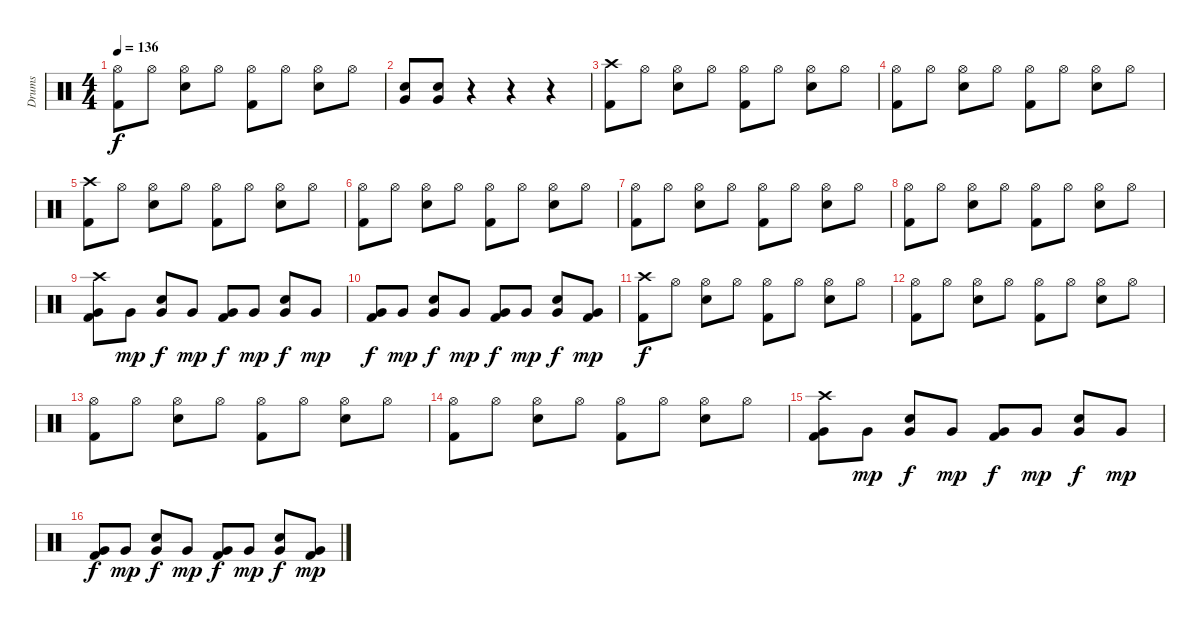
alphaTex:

\track ("Drums" "Drums") {instrument percussion}
\staff {score}
\articulation defaults
\ts (4 4)
\tempo 136
\clef neutral
\ks c
("Hi-Hat (open)" "Kick (hit) 2").8{dy f} "Hi-Hat (open)".8 ("Hi-Hat (open)" "Snare (hit) 2").8 "Hi-Hat (open)".8 ("Hi-Hat (open)" "Kick (hit) 2").8 "Hi-Hat (open)".8 ("Hi-Hat (open)" "Snare (hit) 2").8 "Hi-Hat (open)".8 |
("Very Low Tom (hit)" "Snare (hit) 2").8 ("Very Low Tom (hit)" "Snare (hit) 2").8 r.4 r.4 r.4 |
("Crash high (hit)" "Kick (hit) 2").8 "Hi-Hat (open)".8 ("Hi-Hat (open)" "Snare (hit) 2").8 "Hi-Hat (open)".8 ("Hi-Hat (open)" "Kick (hit) 2").8 "Hi-Hat (open)".8 ("Hi-Hat (open)" "Snare (hit) 2").8 "Hi-Hat (open)".8 |
("Hi-Hat (open)" "Kick (hit) 2").8 "Hi-Hat (open)".8 ("Hi-Hat (open)" "Snare (hit) 2").8 "Hi-Hat (open)".8 ("Hi-Hat (open)" "Kick (hit) 2").8 "Hi-Hat (open)".8 ("Hi-Hat (open)" "Snare (hit) 2").8 "Hi-Hat (open)".8 |
("Crash high (hit)" "Kick (hit) 2").8 "Hi-Hat (open)".8 ("Hi-Hat (open)" "Snare (hit) 2").8 "Hi-Hat (open)".8 ("Hi-Hat (open)" "Kick (hit) 2").8 "Hi-Hat (open)".8 ("Hi-Hat (open)" "Snare (hit) 2").8 "Hi-Hat (open)".8 |
("Hi-Hat (open)" "Kick (hit) 2").8 "Hi-Hat (open)".8 ("Hi-Hat (open)" "Snare (hit) 2").8 "Hi-Hat (open)".8 ("Hi-Hat (open)" "Kick (hit) 2").8 "Hi-Hat (open)".8 ("Hi-Hat (open)" "Snare (hit) 2").8 "Hi-Hat (open)".8 |
("Hi-Hat (open)" "Kick (hit) 2").8 "Hi-Hat (open)".8 ("Hi-Hat (open)" "Snare (hit) 2").8 "Hi-Hat (open)".8 ("Hi-Hat (open)" "Kick (hit) 2").8 "Hi-Hat (open)".8 ("Hi-Hat (open)" "Snare (hit) 2").8 "Hi-Hat (open)".8 |
("Hi-Hat (open)" "Kick (hit) 2").8 "Hi-Hat (open)".8 ("Hi-Hat (open)" "Snare (hit) 2").8 "Hi-Hat (open)".8 ("Hi-Hat (open)" "Kick (hit) 2").8 "Hi-Hat (open)".8 ("Hi-Hat (open)" "Snare (hit) 2").8 "Hi-Hat (open)".8 |
("Crash high (hit)" "Very Low Tom (hit)" "Kick (hit) 2").8 "Very Low Tom (hit)".8{dy mp} ("Very Low Tom (hit)" "Snare (hit) 2").8{dy f} "Very Low Tom (hit)".8{dy mp} ("Very Low Tom (hit)" "Kick (hit) 2").8{dy f} "Very Low Tom (hit)".8{dy mp} ("Very Low Tom (hit)" "Snare (hit) 2").8{dy f} "Very Low Tom (hit)".8{dy mp} |
("Very Low Tom (hit)" "Kick (hit) 2").8{dy f} "Very Low Tom (hit)".8{dy mp} ("Very Low Tom (hit)" "Snare (hit) 2").8{dy f} "Very Low Tom (hit)".8{dy mp} ("Very Low Tom (hit)" "Kick (hit) 2").8{dy f} "Very Low Tom (hit)".8{dy mp} ("Very Low Tom (hit)" "Snare (hit) 2").8{dy f} ("Very Low Tom (hit)" "Kick (hit) 2").8{dy mp} |
("Crash high (hit)" "Kick (hit) 2").8{dy f} "Hi-Hat (open)".8 ("Hi-Hat (open)" "Snare (hit) 2").8 "Hi-Hat (open)".8 ("Hi-Hat (open)" "Kick (hit) 2").8 "Hi-Hat (open)".8 ("Hi-Hat (open)" "Snare (hit) 2").8 "Hi-Hat (open)".8 |
("Hi-Hat (open)" "Kick (hit) 2").8 "Hi-Hat (open)".8 ("Hi-Hat (open)" "Snare (hit) 2").8 "Hi-Hat (open)".8 ("Hi-Hat (open)" "Kick (hit) 2").8 "Hi-Hat (open)".8 ("Hi-Hat (open)" "Snare (hit) 2").8 "Hi-Hat (open)".8 |
("Hi-Hat (open)" "Kick (hit) 2").8 "Hi-Hat (open)".8 ("Hi-Hat (open)" "Snare (hit) 2").8 "Hi-Hat (open)".8 ("Hi-Hat (open)" "Kick (hit) 2").8 "Hi-Hat (open)".8 ("Hi-Hat (open)" "Snare (hit) 2").8 "Hi-Hat (open)".8 |
("Hi-Hat (open)" "Kick (hit) 2").8 "Hi-Hat (open)".8 ("Hi-Hat (open)" "Snare (hit) 2").8 "Hi-Hat (open)".8 ("Hi-Hat (open)" "Kick (hit) 2").8 "Hi-Hat (open)".8 ("Hi-Hat (open)" "Snare (hit) 2").8 "Hi-Hat (open)".8 |
("Crash high (hit)" "Very Low Tom (hit)" "Kick (hit) 2").8 "Very Low Tom (hit)".8{dy mp} ("Very Low Tom (hit)" "Snare (hit) 2").8{dy f} "Very Low Tom (hit)".8{dy mp} ("Very Low Tom (hit)" "Kick (hit) 2").8{dy f} "Very Low Tom (hit)".8{dy mp} ("Very Low Tom (hit)" "Snare (hit) 2").8{dy f} "Very Low Tom (hit)".8{dy mp} |
("Very Low Tom (hit)" "Kick (hit) 2").8{dy f} "Very Low Tom (hit)".8{dy mp} ("Very Low Tom (hit)" "Snare (hit) 2").8{dy f} "Very Low Tom (hit)".8{dy mp} ("Very Low Tom (hit)" "Kick (hit) 2").8{dy f} "Very Low Tom (hit)".8{dy mp} ("Very Low Tom (hit)" "Snare (hit) 2").8{dy f} ("Very Low Tom (hit)" "Kick (hit) 2").8{dy mp}
